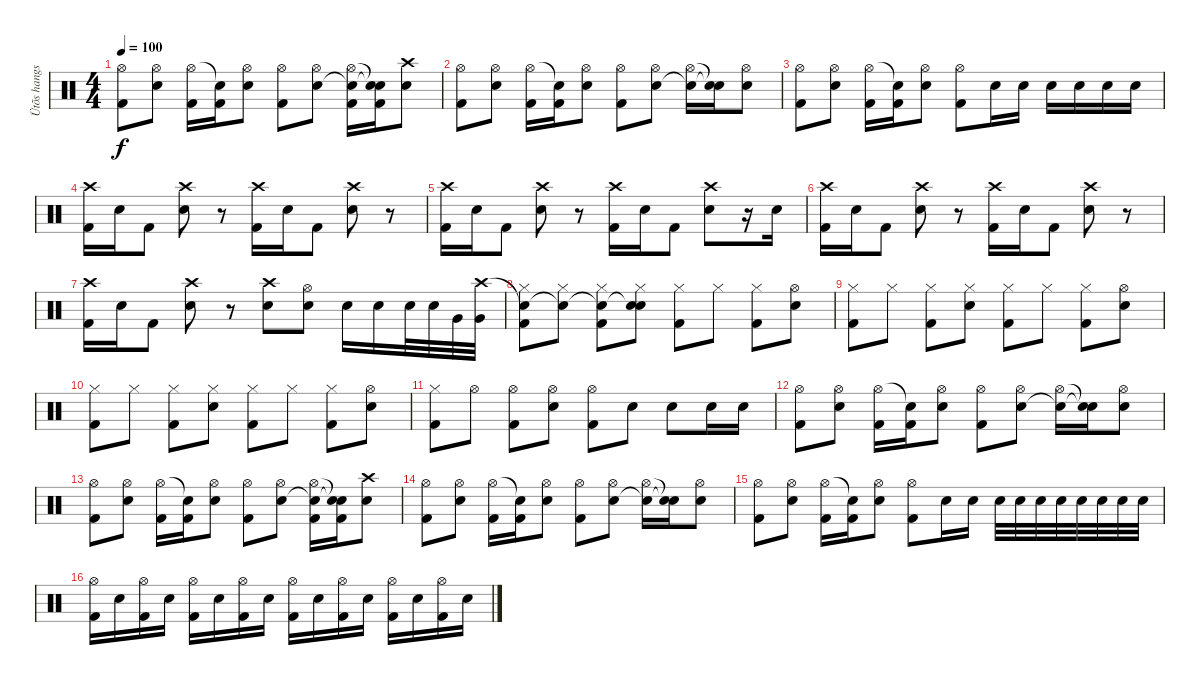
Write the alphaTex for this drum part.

\track ("Ütõs hangszer" "Ütõs hangs") {instrument percussion}
\staff {score}
\articulation defaults
\ts (4 4)
\tempo 100
\clef neutral
\ks c
("Hi-Hat (open)" "Kick (hit) 2").8{dy f} ("Hi-Hat (open)" "Electric Snare (hit)").8 ("Hi-Hat (open)" "Kick (hit) 2").16 ("Snare (hit)"{t} "Kick (hit) 2").16 ("Hi-Hat (open)" "Electric Snare (hit)").8 ("Hi-Hat (open)" "Kick (hit) 2").8 ("Hi-Hat (open)" "Electric Snare (hit)").8 ("Hi-Hat (open)" "Snare (hit)"{t} "Kick (hit) 2").16 ("Snare (hit)"{t} "Snare (hit)"{t} "Kick (hit) 2").16 ("Crash high (hit)" "Electric Snare (hit)").8 |
("Hi-Hat (open)" "Kick (hit) 2").8 ("Hi-Hat (open)" "Electric Snare (hit)").8 ("Hi-Hat (open)" "Kick (hit) 2").16 ("Snare (hit)"{t} "Kick (hit) 2").16 ("Hi-Hat (open)" "Electric Snare (hit)").8 ("Hi-Hat (open)" "Kick (hit) 2").8 ("Hi-Hat (open)" "Electric Snare (hit)").8 ("Hi-Hat (open)" "Snare (hit)"{t}).16 ("Snare (hit)"{t} "Snare (hit)"{t}).16 ("Hi-Hat (open)" "Electric Snare (hit)").8 |
("Hi-Hat (open)" "Kick (hit) 2").8 ("Hi-Hat (open)" "Electric Snare (hit)").8 ("Hi-Hat (open)" "Kick (hit) 2").16 ("Snare (hit)"{t} "Kick (hit) 2").16 ("Hi-Hat (open)" "Electric Snare (hit)").8 ("Hi-Hat (open)" "Kick (hit) 2").8 "Electric Snare (hit)".16 "Electric Snare (hit)".16 "Electric Snare (hit)".16 "Electric Snare (hit)".16 "Electric Snare (hit)".16 "Electric Snare (hit)".16 |
("Crash high (hit)" "Kick (hit) 2").16 "Electric Snare (hit)".16 "Kick (hit) 2".8 ("Crash high (hit)" "Electric Snare (hit)").8 r.8 ("Crash high (hit)" "Kick (hit) 2").16 "Electric Snare (hit)".16 "Kick (hit) 2".8 ("Crash high (hit)" "Electric Snare (hit)").8 r.8 |
("Crash high (hit)" "Kick (hit) 2").16 "Electric Snare (hit)".16 "Kick (hit) 2".8 ("Crash high (hit)" "Electric Snare (hit)").8 r.8 ("Crash high (hit)" "Kick (hit) 2").16 "Electric Snare (hit)".16 "Kick (hit) 2".8 ("Crash high (hit)" "Electric Snare (hit)").8 r.16 "Electric Snare (hit)".16 |
("Crash high (hit)" "Kick (hit) 2").16 "Electric Snare (hit)".16 "Kick (hit) 2".8 ("Crash high (hit)" "Electric Snare (hit)").8 r.8 ("Crash high (hit)" "Kick (hit) 2").16 "Electric Snare (hit)".16 "Kick (hit) 2".8 ("Crash high (hit)" "Electric Snare (hit)").8 r.8 |
("Crash high (hit)" "Kick (hit) 2").16 "Electric Snare (hit)".16 "Kick (hit) 2".8 ("Crash high (hit)" "Electric Snare (hit)").8 r.8 ("Crash high (hit)" "Electric Snare (hit)").8 ("Hi-Hat (open)" "Electric Snare (hit)").8 "Electric Snare (hit)".16 "Electric Snare (hit)".16 "Electric Snare (hit)".32 "Electric Snare (hit)".32 "Very Low Tom (hit)".32 ("Crash high (hit)" "Very Low Tom (hit)").32 |
("Snare (hit)"{t} "Hi-Hat (closed)" "Kick (hit) 2").8 ("Snare (hit)"{t} "Hi-Hat (closed)").8 ("Snare (hit)"{t} "Hi-Hat (closed)" "Kick (hit) 2").8 ("Snare (hit)"{t} "Hi-Hat (closed)" "Electric Snare (hit)").8 ("Hi-Hat (closed)" "Kick (hit) 2").8 "Hi-Hat (closed)".8 ("Hi-Hat (closed)" "Kick (hit) 2").8 ("Hi-Hat (open)" "Electric Snare (hit)").8 |
("Hi-Hat (closed)" "Kick (hit) 2").8 "Hi-Hat (closed)".8 ("Hi-Hat (closed)" "Kick (hit) 2").8 ("Hi-Hat (closed)" "Electric Snare (hit)").8 ("Hi-Hat (closed)" "Kick (hit) 2").8 "Hi-Hat (closed)".8 ("Hi-Hat (closed)" "Kick (hit) 2").8 ("Hi-Hat (open)" "Electric Snare (hit)").8 |
("Hi-Hat (closed)" "Kick (hit) 2").8 "Hi-Hat (closed)".8 ("Hi-Hat (closed)" "Kick (hit) 2").8 ("Hi-Hat (closed)" "Electric Snare (hit)").8 ("Hi-Hat (closed)" "Kick (hit) 2").8 "Hi-Hat (closed)".8 ("Hi-Hat (closed)" "Kick (hit) 2").8 ("Hi-Hat (open)" "Electric Snare (hit)").8 |
("Hi-Hat (closed)" "Kick (hit) 2").8 "Hi-Hat (open)".8 ("Hi-Hat (open)" "Kick (hit) 2").8 ("Hi-Hat (open)" "Electric Snare (hit)").8 ("Hi-Hat (open)" "Kick (hit) 2").8 "Electric Snare (hit)".8 "Electric Snare (hit)".8 "Electric Snare (hit)".16 "Electric Snare (hit)".16 |
("Hi-Hat (open)" "Kick (hit) 2").8 ("Hi-Hat (open)" "Electric Snare (hit)").8 ("Hi-Hat (open)" "Kick (hit) 2").16 ("Snare (hit)"{t} "Kick (hit) 2").16 ("Hi-Hat (open)" "Electric Snare (hit)").8 ("Hi-Hat (open)" "Kick (hit) 2").8 ("Hi-Hat (open)" "Electric Snare (hit)").8 ("Hi-Hat (open)" "Snare (hit)"{t}).16 ("Snare (hit)"{t} "Snare (hit)"{t}).16 ("Hi-Hat (open)" "Electric Snare (hit)").8 |
("Hi-Hat (open)" "Kick (hit) 2").8 ("Hi-Hat (open)" "Electric Snare (hit)").8 ("Hi-Hat (open)" "Kick (hit) 2").16 ("Snare (hit)"{t} "Kick (hit) 2").16 ("Hi-Hat (open)" "Electric Snare (hit)").8 ("Hi-Hat (open)" "Kick (hit) 2").8 ("Hi-Hat (open)" "Electric Snare (hit)").8 ("Hi-Hat (open)" "Snare (hit)"{t} "Kick (hit) 2").16 ("Snare (hit)"{t} "Snare (hit)"{t} "Kick (hit) 2").16 ("Crash high (hit)" "Electric Snare (hit)").8 |
("Hi-Hat (open)" "Kick (hit) 2").8 ("Hi-Hat (open)" "Electric Snare (hit)").8 ("Hi-Hat (open)" "Kick (hit) 2").16 ("Snare (hit)"{t} "Kick (hit) 2").16 ("Hi-Hat (open)" "Electric Snare (hit)").8 ("Hi-Hat (open)" "Kick (hit) 2").8 ("Hi-Hat (open)" "Electric Snare (hit)").8 ("Hi-Hat (open)" "Snare (hit)"{t}).16 ("Snare (hit)"{t} "Snare (hit)"{t}).16 ("Hi-Hat (open)" "Electric Snare (hit)").8 |
("Hi-Hat (open)" "Kick (hit) 2").8 ("Hi-Hat (open)" "Electric Snare (hit)").8 ("Hi-Hat (open)" "Kick (hit) 2").16 ("Snare (hit)"{t} "Kick (hit) 2").16 ("Hi-Hat (open)" "Electric Snare (hit)").8 ("Hi-Hat (open)" "Kick (hit) 2").8 "Electric Snare (hit)".16 "Electric Snare (hit)".16 "Electric Snare (hit)".32 "Electric Snare (hit)".32 "Electric Snare (hit)".32 "Electric Snare (hit)".32 "Electric Snare (hit)".32 "Electric Snare (hit)".32 "Electric Snare (hit)".32 "Electric Snare (hit)".32 |
("Hi-Hat (open)" "Kick (hit) 2").16 "Electric Snare (hit)".16 ("Hi-Hat (open)" "Kick (hit) 2").16 "Electric Snare (hit)".16 ("Hi-Hat (open)" "Kick (hit) 2").16 "Electric Snare (hit)".16 ("Hi-Hat (open)" "Kick (hit) 2").16 "Electric Snare (hit)".16 ("Hi-Hat (open)" "Kick (hit) 2").16 "Electric Snare (hit)".16 ("Hi-Hat (open)" "Kick (hit) 2").16 "Electric Snare (hit)".16 ("Hi-Hat (open)" "Kick (hit) 2").16 "Electric Snare (hit)".16 ("Hi-Hat (open)" "Kick (hit) 2").16 "Electric Snare (hit)".16
